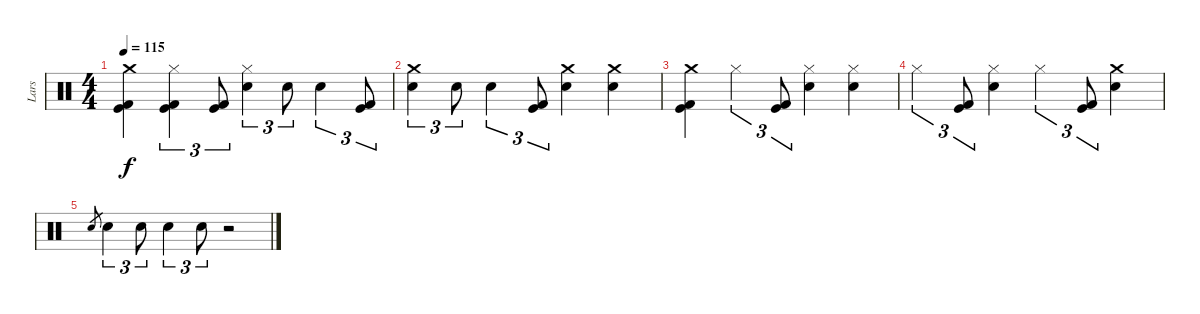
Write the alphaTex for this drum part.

\track ("Lars" "Lars") {instrument percussion}
\staff {score}
\articulation defaults
\ts (4 4)
\tempo 115
\clef neutral
\ks c
("Crash medium (hit)" "Kick (hit)" "Kick (hit) 2").4{dy f} ("Hi-Hat (closed)" "Kick (hit)" "Kick (hit) 2").4{tu (3 2)} ("Kick (hit)" "Kick (hit) 2").8{tu (3 2)} ("Hi-Hat (closed)" "Electric Snare (hit)").4{tu (3 2)} "Electric Snare (hit)".8{tu (3 2)} "Electric Snare (hit)".4{tu (3 2)} ("Kick (hit)" "Kick (hit) 2").8{tu (3 2)} |
("Crash medium (hit)" "Electric Snare (hit)").4{tu (3 2)} "Electric Snare (hit)".8{tu (3 2)} "Electric Snare (hit)".4{tu (3 2)} ("Kick (hit)" "Kick (hit) 2").8{tu (3 2)} ("Crash medium (hit)" "Electric Snare (hit)").4 ("Crash medium (hit)" "Electric Snare (hit)").4 |
("Crash medium (hit)" "Kick (hit)" "Kick (hit) 2").4 "Hi-Hat (closed)".4{tu (3 2)} ("Kick (hit)" "Kick (hit) 2").8{tu (3 2)} ("Hi-Hat (closed)" "Electric Snare (hit)").4 ("Hi-Hat (closed)" "Electric Snare (hit)").4 |
"Hi-Hat (closed)".4{tu (3 2)} ("Kick (hit)" "Kick (hit) 2").8{tu (3 2)} ("Hi-Hat (closed)" "Electric Snare (hit)").4 "Hi-Hat (closed)".4{tu (3 2)} ("Kick (hit)" "Kick (hit) 2").8{tu (3 2)} ("Crash medium (hit)" "Electric Snare (hit)").4 |
"Electric Snare (hit)".8{gr} "Electric Snare (hit)".4{tu (3 2)} "Electric Snare (hit)".8{tu (3 2)} "Electric Snare (hit)".4{tu (3 2)} "Electric Snare (hit)".8{tu (3 2)} r.2
